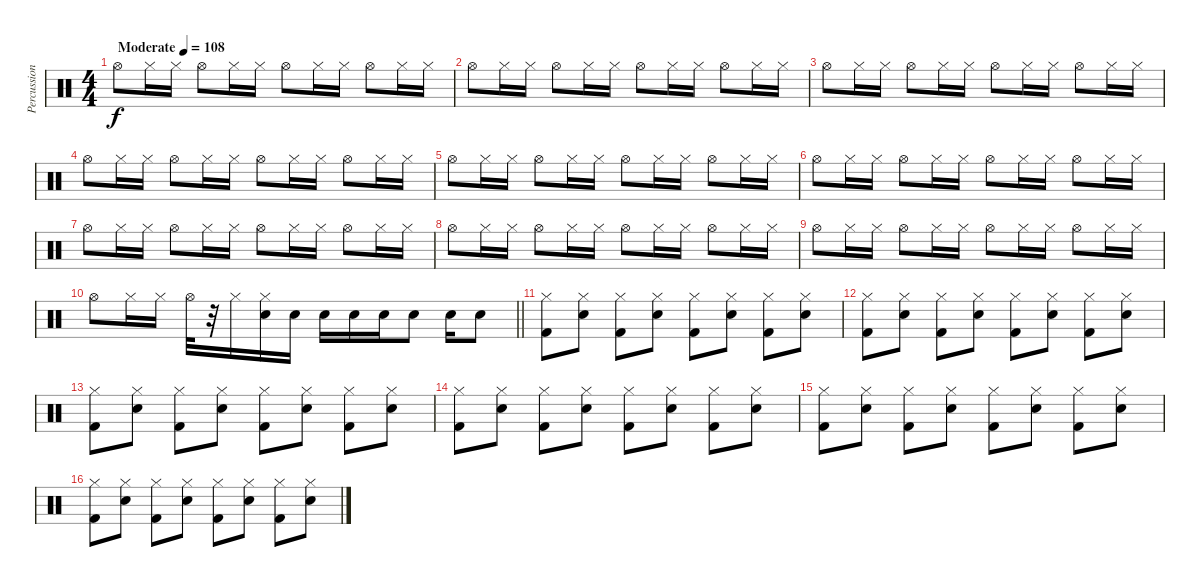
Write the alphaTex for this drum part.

\track ("Percussion" "Percussion") {instrument percussion}
\staff {score}
\articulation defaults
\ts (4 4)
\tempo (108 "Moderate")
\clef neutral
\ks c "Hi-Hat (open)".8{dy f} "Hi-Hat (closed)".16 "Hi-Hat (closed)".16 "Hi-Hat (open)".8 "Hi-Hat (closed)".16 "Hi-Hat (closed)".16 "Hi-Hat (open)".8 "Hi-Hat (closed)".16 "Hi-Hat (closed)".16 "Hi-Hat (open)".8 "Hi-Hat (closed)".16 "Hi-Hat (closed)".16
|
"Hi-Hat (open)".8 "Hi-Hat (closed)".16 "Hi-Hat (closed)".16 "Hi-Hat (open)".8 "Hi-Hat (closed)".16 "Hi-Hat (closed)".16 "Hi-Hat (open)".8 "Hi-Hat (closed)".16 "Hi-Hat (closed)".16 "Hi-Hat (open)".8 "Hi-Hat (closed)".16 "Hi-Hat (closed)".16 |
"Hi-Hat (open)".8 "Hi-Hat (closed)".16 "Hi-Hat (closed)".16 "Hi-Hat (open)".8 "Hi-Hat (closed)".16 "Hi-Hat (closed)".16 "Hi-Hat (open)".8 "Hi-Hat (closed)".16 "Hi-Hat (closed)".16 "Hi-Hat (open)".8 "Hi-Hat (closed)".16 "Hi-Hat (closed)".16 |
"Hi-Hat (open)".8 "Hi-Hat (closed)".16 "Hi-Hat (closed)".16 "Hi-Hat (open)".8 "Hi-Hat (closed)".16 "Hi-Hat (closed)".16 "Hi-Hat (open)".8 "Hi-Hat (closed)".16 "Hi-Hat (closed)".16 "Hi-Hat (open)".8 "Hi-Hat (closed)".16 "Hi-Hat (closed)".16 |
"Hi-Hat (open)".8 "Hi-Hat (closed)".16 "Hi-Hat (closed)".16 "Hi-Hat (open)".8 "Hi-Hat (closed)".16 "Hi-Hat (closed)".16 "Hi-Hat (open)".8 "Hi-Hat (closed)".16 "Hi-Hat (closed)".16 "Hi-Hat (open)".8 "Hi-Hat (closed)".16 "Hi-Hat (closed)".16 |
"Hi-Hat (open)".8 "Hi-Hat (closed)".16 "Hi-Hat (closed)".16 "Hi-Hat (open)".8 "Hi-Hat (closed)".16 "Hi-Hat (closed)".16 "Hi-Hat (open)".8 "Hi-Hat (closed)".16 "Hi-Hat (closed)".16 "Hi-Hat (open)".8 "Hi-Hat (closed)".16 "Hi-Hat (closed)".16 |
"Hi-Hat (open)".8 "Hi-Hat (closed)".16 "Hi-Hat (closed)".16 "Hi-Hat (open)".8 "Hi-Hat (closed)".16 "Hi-Hat (closed)".16 "Hi-Hat (open)".8 "Hi-Hat (closed)".16 "Hi-Hat (closed)".16 "Hi-Hat (open)".8 "Hi-Hat (closed)".16 "Hi-Hat (closed)".16 |
"Hi-Hat (open)".8 "Hi-Hat (closed)".16 "Hi-Hat (closed)".16 "Hi-Hat (open)".8 "Hi-Hat (closed)".16 "Hi-Hat (closed)".16 "Hi-Hat (open)".8 "Hi-Hat (closed)".16 "Hi-Hat (closed)".16 "Hi-Hat (open)".8 "Hi-Hat (closed)".16 "Hi-Hat (closed)".16 |
"Hi-Hat (open)".8 "Hi-Hat (closed)".16 "Hi-Hat (closed)".16 "Hi-Hat (open)".8 "Hi-Hat (closed)".16 "Hi-Hat (closed)".16 "Hi-Hat (open)".8 "Hi-Hat (closed)".16 "Hi-Hat (closed)".16 "Hi-Hat (open)".8 "Hi-Hat (closed)".16 "Hi-Hat (closed)".16 |
\barLineRight lightlight "Hi-Hat (open)".8 "Hi-Hat (closed)".16 "Hi-Hat (closed)".16 "Hi-Hat (open)".32
r.32 "Hi-Hat (closed)".16 ("Hi-Hat (closed)" "Electric Snare (hit)").16 "Electric Snare (hit)".16 "Electric Snare (hit)".16 "Electric Snare (hit)".16 "Electric Snare (hit)".16 "Electric Snare (hit)".8 "Electric Snare (hit)".16 "Electric Snare (hit)".8 |
("Hi-Hat (closed)" "Kick (hit) 2").8 ("Hi-Hat (closed)" "Electric Snare (hit)").8 ("Hi-Hat (closed)" "Kick (hit) 2").8 ("Hi-Hat (closed)" "Electric Snare (hit)").8 ("Hi-Hat (closed)" "Kick (hit) 2").8 ("Hi-Hat (closed)" "Electric Snare (hit)").8 ("Hi-Hat (closed)" "Kick (hit) 2").8 ("Hi-Hat (closed)" "Electric Snare (hit)").8 |
("Hi-Hat (closed)" "Kick (hit) 2").8 ("Hi-Hat (closed)" "Electric Snare (hit)").8 ("Hi-Hat (closed)" "Kick (hit) 2").8 ("Hi-Hat (closed)" "Electric Snare (hit)").8 ("Hi-Hat (closed)" "Kick (hit) 2").8 ("Hi-Hat (closed)" "Electric Snare (hit)").8 ("Hi-Hat (closed)" "Kick (hit) 2").8 ("Hi-Hat (closed)" "Electric Snare (hit)").8 |
("Hi-Hat (closed)" "Kick (hit) 2").8 ("Hi-Hat (closed)" "Electric Snare (hit)").8 ("Hi-Hat (closed)" "Kick (hit) 2").8 ("Hi-Hat (closed)" "Electric Snare (hit)").8 ("Hi-Hat (closed)" "Kick (hit) 2").8 ("Hi-Hat (closed)" "Electric Snare (hit)").8 ("Hi-Hat (closed)" "Kick (hit) 2").8 ("Hi-Hat (closed)" "Electric Snare (hit)").8 |
("Hi-Hat (closed)" "Kick (hit) 2").8 ("Hi-Hat (closed)" "Electric Snare (hit)").8 ("Hi-Hat (closed)" "Kick (hit) 2").8 ("Hi-Hat (closed)" "Electric Snare (hit)").8 ("Hi-Hat (closed)" "Kick (hit) 2").8 ("Hi-Hat (closed)" "Electric Snare (hit)").8 ("Hi-Hat (closed)" "Kick (hit) 2").8 ("Hi-Hat (closed)" "Electric Snare (hit)").8 |
("Hi-Hat (closed)" "Kick (hit) 2").8 ("Hi-Hat (closed)" "Electric Snare (hit)").8 ("Hi-Hat (closed)" "Kick (hit) 2").8 ("Hi-Hat (closed)" "Electric Snare (hit)").8 ("Hi-Hat (closed)" "Kick (hit) 2").8 ("Hi-Hat (closed)" "Electric Snare (hit)").8 ("Hi-Hat (closed)" "Kick (hit) 2").8 ("Hi-Hat (closed)" "Electric Snare (hit)").8 |
("Hi-Hat (closed)" "Kick (hit) 2").8 ("Hi-Hat (closed)" "Electric Snare (hit)").8 ("Hi-Hat (closed)" "Kick (hit) 2").8 ("Hi-Hat (closed)" "Electric Snare (hit)").8 ("Hi-Hat (closed)" "Kick (hit) 2").8 ("Hi-Hat (closed)" "Electric Snare (hit)").8 ("Hi-Hat (closed)" "Kick (hit) 2").8 ("Hi-Hat (closed)" "Electric Snare (hit)").8
